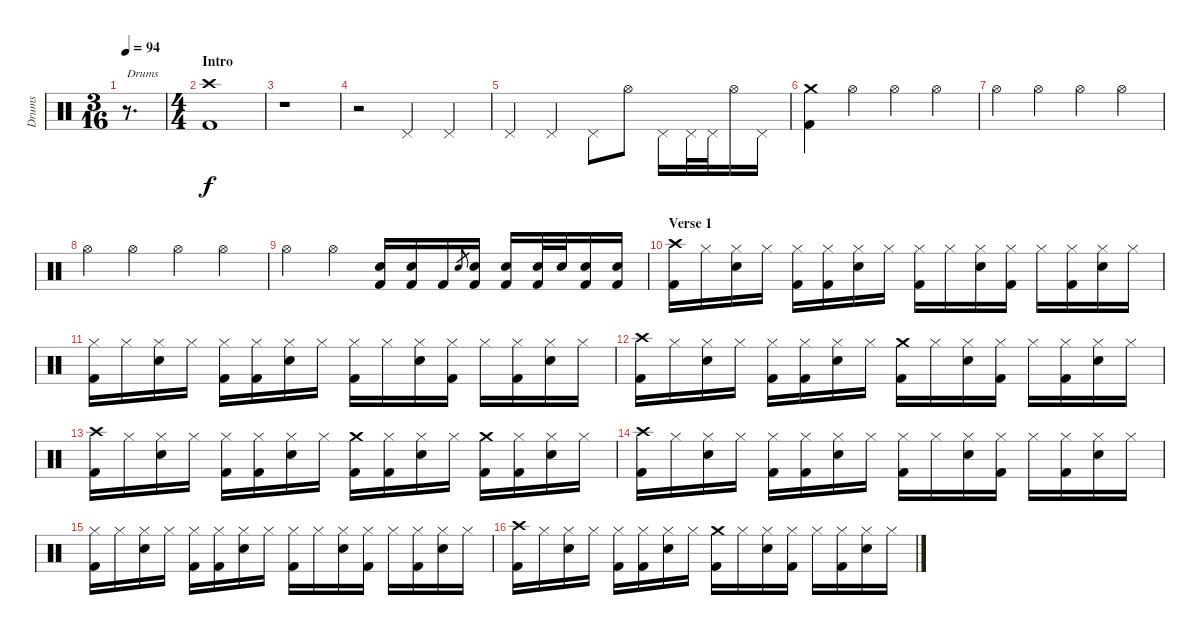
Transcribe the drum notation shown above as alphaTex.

\track ("Drums" "Drums") {instrument percussion}
\staff {score}
\articulation defaults
\ts (3 16)
\tempo 94
\clef neutral
\ks c
r.8{d txt "Drums" dy f} |
\ts (4 4)
\section ("" "Intro")
("Crash high (hit)" "Kick (hit) 2").1 |
r.1 |
r.2 "Pedal Hi-Hat (hit)".4 "Pedal Hi-Hat (hit)".4 |
"Pedal Hi-Hat (hit)".4 "Pedal Hi-Hat (hit)".4 "Pedal Hi-Hat (hit)".8 "Hi-Hat (open)".8 "Pedal Hi-Hat (hit)".16 "Pedal Hi-Hat (hit)".32 "Pedal Hi-Hat (hit)".32 "Hi-Hat (open)".16 "Pedal Hi-Hat (hit)".16 |
("Crash medium (hit)" "Kick (hit) 2").4 "Hi-Hat (open)".4 "Hi-Hat (open)".4 "Hi-Hat (open)".4 |
"Hi-Hat (open)".4 "Hi-Hat (open)".4 "Hi-Hat (open)".4 "Hi-Hat (open)".4 |
"Hi-Hat (open)".4 "Hi-Hat (open)".4 "Hi-Hat (open)".4 "Hi-Hat (open)".4 |
"Hi-Hat (open)".4 "Hi-Hat (open)".4 ("Electric Snare (hit)" "Kick (hit) 2").16 ("Electric Snare (hit)" "Kick (hit) 2").16 "Kick (hit) 2".16 "Electric Snare (hit)".8{gr} ("Electric Snare (hit)" "Kick (hit) 2").16 ("Electric Snare (hit)" "Kick (hit) 2").16 ("Electric Snare (hit)" "Kick (hit) 2").32 "Electric Snare (hit)".32 ("Electric Snare (hit)" "Kick (hit) 2").16 ("Electric Snare (hit)" "Kick (hit) 2").16 |
\section ("" "Verse 1")
("Crash high (hit)" "Kick (hit) 2").16 "Hi-Hat (closed)".16 ("Hi-Hat (closed)" "Electric Snare (hit)").16 "Hi-Hat (closed)".16 ("Hi-Hat (closed)" "Kick (hit) 2").16 ("Hi-Hat (closed)" "Kick (hit) 2").16 ("Hi-Hat (closed)" "Electric Snare (hit)").16 "Hi-Hat (closed)".16 ("Hi-Hat (closed)" "Kick (hit) 2").16 "Hi-Hat (closed)".16 ("Hi-Hat (closed)" "Electric Snare (hit)").16 ("Hi-Hat (closed)" "Kick (hit) 2").16 "Hi-Hat (closed)".16 ("Hi-Hat (closed)" "Kick (hit) 2").16 ("Hi-Hat (closed)" "Electric Snare (hit)").16 "Hi-Hat (closed)".16 |
("Hi-Hat (closed)" "Kick (hit) 2").16 "Hi-Hat (closed)".16 ("Hi-Hat (closed)" "Electric Snare (hit)").16 "Hi-Hat (closed)".16 ("Hi-Hat (closed)" "Kick (hit) 2").16 ("Hi-Hat (closed)" "Kick (hit) 2").16 ("Hi-Hat (closed)" "Electric Snare (hit)").16 "Hi-Hat (closed)".16 ("Hi-Hat (closed)" "Kick (hit) 2").16 "Hi-Hat (closed)".16 ("Hi-Hat (closed)" "Electric Snare (hit)").16 ("Hi-Hat (closed)" "Kick (hit) 2").16 "Hi-Hat (closed)".16 ("Hi-Hat (closed)" "Kick (hit) 2").16 ("Hi-Hat (closed)" "Electric Snare (hit)").16 "Hi-Hat (closed)".16 |
("Crash high (hit)" "Kick (hit) 2").16 "Hi-Hat (closed)".16 ("Hi-Hat (closed)" "Electric Snare (hit)").16 "Hi-Hat (closed)".16 ("Hi-Hat (closed)" "Kick (hit) 2").16 ("Hi-Hat (closed)" "Kick (hit) 2").16 ("Hi-Hat (closed)" "Electric Snare (hit)").16 "Hi-Hat (closed)".16 ("Crash medium (hit)" "Kick (hit) 2").16 "Hi-Hat (closed)".16 ("Hi-Hat (closed)" "Electric Snare (hit)").16 ("Hi-Hat (closed)" "Kick (hit) 2").16 "Hi-Hat (closed)".16 ("Hi-Hat (closed)" "Kick (hit) 2").16 ("Hi-Hat (closed)" "Electric Snare (hit)").16 "Hi-Hat (closed)".16 |
("Crash high (hit)" "Kick (hit) 2").16 "Hi-Hat (closed)".16 ("Hi-Hat (closed)" "Electric Snare (hit)").16 "Hi-Hat (closed)".16 ("Hi-Hat (closed)" "Kick (hit) 2").16 ("Hi-Hat (closed)" "Kick (hit) 2").16 ("Hi-Hat (closed)" "Electric Snare (hit)").16 "Hi-Hat (closed)".16 ("Crash medium (hit)" "Kick (hit) 2").16 ("Hi-Hat (closed)" "Kick (hit) 2").16 ("Hi-Hat (closed)" "Electric Snare (hit)").16 "Hi-Hat (closed)".16 ("Crash medium (hit)" "Kick (hit) 2").16 ("Hi-Hat (closed)" "Kick (hit) 2").16 ("Hi-Hat (closed)" "Electric Snare (hit)").16 "Hi-Hat (closed)".16 |
("Crash high (hit)" "Kick (hit) 2").16 "Hi-Hat (closed)".16 ("Hi-Hat (closed)" "Electric Snare (hit)").16 "Hi-Hat (closed)".16 ("Hi-Hat (closed)" "Kick (hit) 2").16 ("Hi-Hat (closed)" "Kick (hit) 2").16 ("Hi-Hat (closed)" "Electric Snare (hit)").16 "Hi-Hat (closed)".16 ("Hi-Hat (closed)" "Kick (hit) 2").16 "Hi-Hat (closed)".16 ("Hi-Hat (closed)" "Electric Snare (hit)").16 ("Hi-Hat (closed)" "Kick (hit) 2").16 "Hi-Hat (closed)".16 ("Hi-Hat (closed)" "Kick (hit) 2").16 ("Hi-Hat (closed)" "Electric Snare (hit)").16 "Hi-Hat (closed)".16 |
("Hi-Hat (closed)" "Kick (hit) 2").16 "Hi-Hat (closed)".16 ("Hi-Hat (closed)" "Electric Snare (hit)").16 "Hi-Hat (closed)".16 ("Hi-Hat (closed)" "Kick (hit) 2").16 ("Hi-Hat (closed)" "Kick (hit) 2").16 ("Hi-Hat (closed)" "Electric Snare (hit)").16 "Hi-Hat (closed)".16 ("Hi-Hat (closed)" "Kick (hit) 2").16 "Hi-Hat (closed)".16 ("Hi-Hat (closed)" "Electric Snare (hit)").16 ("Hi-Hat (closed)" "Kick (hit) 2").16 "Hi-Hat (closed)".16 ("Hi-Hat (closed)" "Kick (hit) 2").16 ("Hi-Hat (closed)" "Electric Snare (hit)").16 "Hi-Hat (closed)".16 |
("Crash high (hit)" "Kick (hit) 2").16 "Hi-Hat (closed)".16 ("Hi-Hat (closed)" "Electric Snare (hit)").16 "Hi-Hat (closed)".16 ("Hi-Hat (closed)" "Kick (hit) 2").16 ("Hi-Hat (closed)" "Kick (hit) 2").16 ("Hi-Hat (closed)" "Electric Snare (hit)").16 "Hi-Hat (closed)".16 ("Crash medium (hit)" "Kick (hit) 2").16 "Hi-Hat (closed)".16 ("Hi-Hat (closed)" "Electric Snare (hit)").16 ("Hi-Hat (closed)" "Kick (hit) 2").16 "Hi-Hat (closed)".16 ("Hi-Hat (closed)" "Kick (hit) 2").16 ("Hi-Hat (closed)" "Electric Snare (hit)").16 "Hi-Hat (closed)".16
